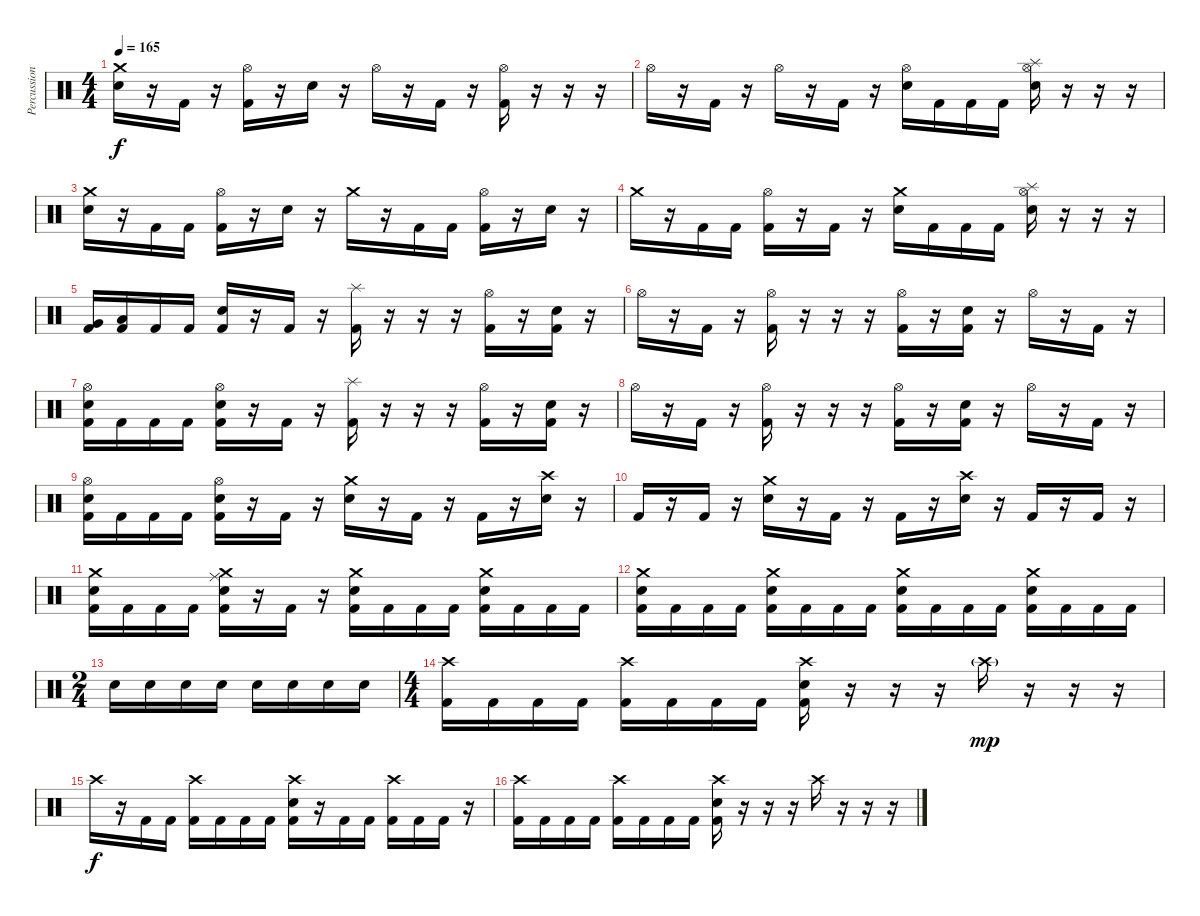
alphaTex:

\track ("Percussion" "Percussion") {instrument percussion}
\staff {score}
\articulation defaults
\ts (4 4)
\tempo 165
\clef neutral
\ks c
("Crash medium (hit)" "Electric Snare (hit)").16{dy f} r.16 "Kick (hit) 2".16 r.16 ("Hi-Hat (open)" "Kick (hit) 2").16 r.16 "Electric Snare (hit)".16 r.16 "Hi-Hat (open)".16 r.16 "Kick (hit) 2".16 r.16 ("Hi-Hat (open)" "Kick (hit) 2").16 r.16 r.16 r.16 |
"Hi-Hat (open)".16 r.16 "Kick (hit) 2".16 r.16 "Hi-Hat (open)".16 r.16 "Kick (hit) 2".16 r.16 ("Hi-Hat (open)" "Electric Snare (hit)").16 "Kick (hit) 2".16 "Kick (hit) 2".16 "Kick (hit) 2".16 ("Hi-Hat (open)" "Splash (hit)" "Electric Snare (hit)").16 r.16 r.16 r.16 |
("Crash medium (hit)" "Electric Snare (hit)").16 r.16 "Kick (hit) 2".16 "Kick (hit) 2".16 ("Hi-Hat (open)" "Kick (hit) 2").16 r.16 "Electric Snare (hit)".16 r.16 "Crash medium (hit)".16 r.16 "Kick (hit) 2".16 "Kick (hit) 2".16 ("Hi-Hat (open)" "Kick (hit) 2").16 r.16 "Electric Snare (hit)".16 r.16 |
"Crash medium (hit)".16 r.16 "Kick (hit) 2".16 "Kick (hit) 2".16 ("Hi-Hat (open)" "Kick (hit) 2").16 r.16 "Kick (hit) 2".16 r.16 ("Crash medium (hit)" "Electric Snare (hit)").16 "Kick (hit) 2".16 "Kick (hit) 2".16 "Kick (hit) 2".16 ("Hi-Hat (open)" "Splash (hit)" "Electric Snare (hit)").16 r.16 r.16 r.16 |
("Very Low Tom (hit)" "Kick (hit) 2").16 ("Low Floor Tom (hit)" "Kick (hit) 2").16 "Kick (hit) 2".16 "Kick (hit) 2".16 ("Electric Snare (hit)" "Kick (hit) 2").16 r.16 "Kick (hit) 2".16 r.16 ("Splash (hit)" "Kick (hit) 2").16 r.16 r.16 r.16 ("Hi-Hat (open)" "Kick (hit) 2").16 r.16 ("Electric Snare (hit)" "Kick (hit) 2").16 r.16 |
"Hi-Hat (open)".16 r.16 "Kick (hit) 2".16 r.16 ("Hi-Hat (open)" "Kick (hit) 2").16 r.16 r.16 r.16 ("Hi-Hat (open)" "Kick (hit) 2").16 r.16 ("Electric Snare (hit)" "Kick (hit) 2").16 r.16 "Hi-Hat (open)".16 r.16 "Kick (hit) 2".16 r.16 |
("Hi-Hat (open)" "Electric Snare (hit)" "Kick (hit) 2").16 "Kick (hit) 2".16 "Kick (hit) 2".16 "Kick (hit) 2".16 ("Hi-Hat (open)" "Electric Snare (hit)" "Kick (hit) 2").16 r.16 "Kick (hit) 2".16 r.16 ("Splash (hit)" "Kick (hit) 2").16 r.16 r.16 r.16 ("Hi-Hat (open)" "Kick (hit) 2").16 r.16 ("Electric Snare (hit)" "Kick (hit) 2").16 r.16 |
"Hi-Hat (open)".16 r.16 "Kick (hit) 2".16 r.16 ("Hi-Hat (open)" "Kick (hit) 2").16 r.16 r.16 r.16 ("Hi-Hat (open)" "Kick (hit) 2").16 r.16 ("Electric Snare (hit)" "Kick (hit) 2").16 r.16 "Hi-Hat (open)".16 r.16 "Kick (hit) 2".16 r.16 |
("Hi-Hat (open)" "Electric Snare (hit)" "Kick (hit) 2").16 "Kick (hit) 2".16 "Kick (hit) 2".16 "Kick (hit) 2".16 ("Hi-Hat (open)" "Electric Snare (hit)" "Kick (hit) 2").16 r.16 "Kick (hit) 2".16 r.16 ("Crash medium (hit)" "Electric Snare (hit)").16 r.16 "Kick (hit) 2".16 r.16 "Kick (hit) 2".16 r.16 ("Crash high (hit)" "Electric Snare (hit)").16 r.16 |
"Kick (hit) 2".16 r.16 "Kick (hit) 2".16 r.16 ("Crash medium (hit)" "Electric Snare (hit)").16 r.16 "Kick (hit) 2".16 r.16 "Kick (hit) 2".16 r.16 ("Crash high (hit)" "Electric Snare (hit)").16 r.16 "Kick (hit) 2".16 r.16 "Kick (hit) 2".16 r.16 |
("Crash medium (hit)" "Electric Snare (hit)" "Kick (hit) 2").16 "Kick (hit) 2".16 "Kick (hit) 2".16 "Kick (hit) 2".16 ("Crash medium (hit)" "Ride (middle)" "Electric Snare (hit)" "Kick (hit) 2").16 r.16 "Kick (hit) 2".16 r.16 ("Crash medium (hit)" "Electric Snare (hit)" "Kick (hit) 2").16 "Kick (hit) 2".16 "Kick (hit) 2".16 "Kick (hit) 2".16 ("Crash medium (hit)" "Electric Snare (hit)" "Kick (hit) 2").16 "Kick (hit) 2".16 "Kick (hit) 2".16 "Kick (hit) 2".16 |
("Crash medium (hit)" "Electric Snare (hit)" "Kick (hit) 2").16 "Kick (hit) 2".16 "Kick (hit) 2".16 "Kick (hit) 2".16 ("Crash medium (hit)" "Electric Snare (hit)" "Kick (hit) 2").16 "Kick (hit) 2".16 "Kick (hit) 2".16 "Kick (hit) 2".16 ("Crash medium (hit)" "Electric Snare (hit)" "Kick (hit) 2").16 "Kick (hit) 2".16 "Kick (hit) 2".16 "Kick (hit) 2".16 ("Crash medium (hit)" "Electric Snare (hit)" "Kick (hit) 2").16 "Kick (hit) 2".16 "Kick (hit) 2".16 "Kick (hit) 2".16 |
\ts (2 4)
"Electric Snare (hit)".16 "Electric Snare (hit)".16 "Electric Snare (hit)".16 "Electric Snare (hit)".16 "Electric Snare (hit)".16 "Electric Snare (hit)".16 "Electric Snare (hit)".16 "Electric Snare (hit)".16 |
\ts (4 4)
("Crash high (hit)" "Kick (hit) 2").16 "Kick (hit) 2".16 "Kick (hit) 2".16 "Kick (hit) 2".16 ("Crash high (hit)" "Kick (hit) 2").16 "Kick (hit) 2".16 "Kick (hit) 2".16 "Kick (hit) 2".16 ("Crash high (hit)" "Electric Snare (hit)" "Kick (hit) 2").16 r.16 r.16 r.16 "Crash high (hit)"{g}.16{dy mp} r.16 r.16 r.16 |
"Crash high (hit)".16{dy f} r.16 "Kick (hit) 2".16 "Kick (hit) 2".16 ("Crash high (hit)" "Kick (hit) 2").16 "Kick (hit) 2".16 "Kick (hit) 2".16 "Kick (hit) 2".16 ("Crash high (hit)" "Electric Snare (hit)" "Kick (hit) 2").16 r.16 "Kick (hit) 2".16 "Kick (hit) 2".16 ("Crash high (hit)" "Kick (hit) 2").16 "Kick (hit) 2".16 "Kick (hit) 2".16 r.16 |
("Crash high (hit)" "Kick (hit) 2").16 "Kick (hit) 2".16 "Kick (hit) 2".16 "Kick (hit) 2".16 ("Crash high (hit)" "Kick (hit) 2").16 "Kick (hit) 2".16 "Kick (hit) 2".16 "Kick (hit) 2".16 ("Crash high (hit)" "Electric Snare (hit)" "Kick (hit) 2").16 r.16 r.16 r.16 "Crash high (hit)".16 r.16 r.16 r.16
